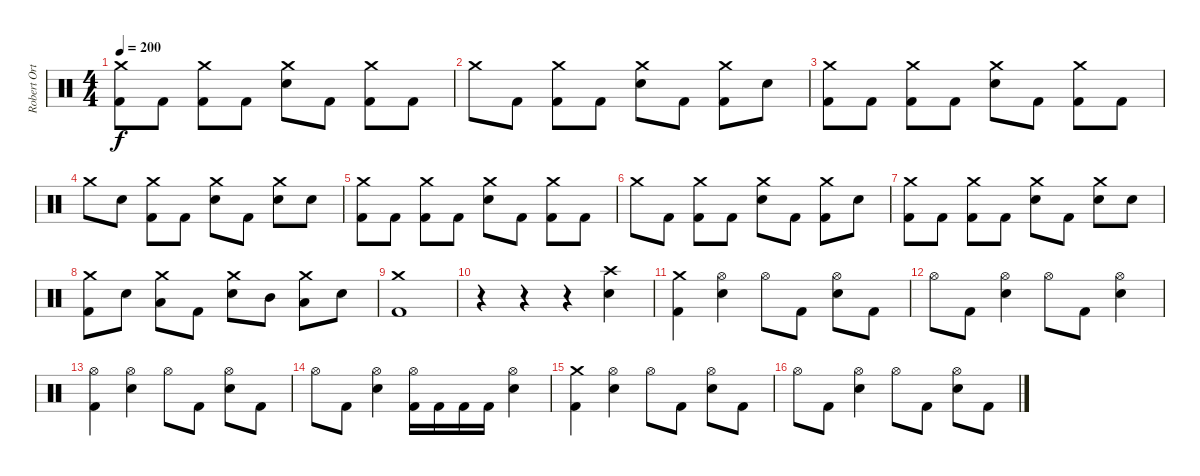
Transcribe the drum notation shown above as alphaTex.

\track ("Robert Ortiz - Drums" "Robert Ort") {instrument percussion}
\staff {score}
\articulation defaults
\ts (4 4)
\tempo 200
\clef neutral
\ks c
("Crash medium (hit)" "Kick (hit) 2").8{dy f} "Kick (hit) 2".8 ("Crash medium (hit)" "Kick (hit) 2").8 "Kick (hit) 2".8 ("Crash medium (hit)" "Electric Snare (hit)").8 "Kick (hit) 2".8 ("Crash medium (hit)" "Kick (hit) 2").8 "Kick (hit) 2".8 |
"Crash medium (hit)".8 "Kick (hit) 2".8 ("Crash medium (hit)" "Kick (hit) 2").8 "Kick (hit) 2".8 ("Crash medium (hit)" "Electric Snare (hit)").8 "Kick (hit) 2".8 ("Crash medium (hit)" "Kick (hit) 2").8 "Electric Snare (hit)".8 |
("Crash medium (hit)" "Kick (hit) 2").8 "Kick (hit) 2".8 ("Crash medium (hit)" "Kick (hit) 2").8 "Kick (hit) 2".8 ("Crash medium (hit)" "Electric Snare (hit)").8 "Kick (hit) 2".8 ("Crash medium (hit)" "Kick (hit) 2").8 "Kick (hit) 2".8 |
"Crash medium (hit)".8 "Electric Snare (hit)".8 ("Crash medium (hit)" "Kick (hit) 2").8 "Kick (hit) 2".8 ("Crash medium (hit)" "Electric Snare (hit)").8 "Kick (hit) 2".8 ("Crash medium (hit)" "Electric Snare (hit)").8 "Electric Snare (hit)".8 |
("Crash medium (hit)" "Kick (hit) 2").8 "Kick (hit) 2".8 ("Crash medium (hit)" "Kick (hit) 2").8 "Kick (hit) 2".8 ("Crash medium (hit)" "Electric Snare (hit)").8 "Kick (hit) 2".8 ("Crash medium (hit)" "Kick (hit) 2").8 "Kick (hit) 2".8 |
"Crash medium (hit)".8 "Kick (hit) 2".8 ("Crash medium (hit)" "Kick (hit) 2").8 "Kick (hit) 2".8 ("Crash medium (hit)" "Electric Snare (hit)").8 "Kick (hit) 2".8 ("Crash medium (hit)" "Kick (hit) 2").8 "Electric Snare (hit)".8 |
("Crash medium (hit)" "Kick (hit) 2").8 "Kick (hit) 2".8 ("Crash medium (hit)" "Kick (hit) 2").8 "Kick (hit) 2".8 ("Crash medium (hit)" "Electric Snare (hit)").8 "Kick (hit) 2".8 ("Crash medium (hit)" "Electric Snare (hit)").8 "Electric Snare (hit)".8 |
("Crash medium (hit)" "Kick (hit) 2").8 "Electric Snare (hit)".8 ("Crash medium (hit)" "Low Tom (hit)").8 "Kick (hit) 2".8 ("Crash medium (hit)" "Electric Snare (hit)").8 "Mid Tom (hit)".8 ("Crash medium (hit)" "Low Tom (hit)").8 "Electric Snare (hit)".8 |
("Crash medium (hit)" "Kick (hit) 2").1 |
r.4 r.4 r.4 ("Crash high (hit)" "Electric Snare (hit)").4 |
("Crash medium (hit)" "Kick (hit) 2").4 ("Hi-Hat (open)" "Electric Snare (hit)").4 "Hi-Hat (open)".8 "Kick (hit) 2".8 ("Hi-Hat (open)" "Electric Snare (hit)").8 "Kick (hit) 2".8 |
"Hi-Hat (open)".8 "Kick (hit) 2".8 ("Hi-Hat (open)" "Electric Snare (hit)").4 "Hi-Hat (open)".8 "Kick (hit) 2".8 ("Hi-Hat (open)" "Electric Snare (hit)").4 |
("Hi-Hat (open)" "Kick (hit) 2").4 ("Hi-Hat (open)" "Electric Snare (hit)").4 "Hi-Hat (open)".8 "Kick (hit) 2".8 ("Hi-Hat (open)" "Electric Snare (hit)").8 "Kick (hit) 2".8 |
"Hi-Hat (open)".8 "Kick (hit) 2".8 ("Hi-Hat (open)" "Electric Snare (hit)").4 ("Hi-Hat (open)" "Kick (hit) 2").16 "Kick (hit) 2".16 "Kick (hit) 2".16 "Kick (hit) 2".16 ("Hi-Hat (open)" "Electric Snare (hit)").4 |
("Crash medium (hit)" "Kick (hit) 2").4 ("Hi-Hat (open)" "Electric Snare (hit)").4 "Hi-Hat (open)".8 "Kick (hit) 2".8 ("Hi-Hat (open)" "Electric Snare (hit)").8 "Kick (hit) 2".8 |
"Hi-Hat (open)".8 "Kick (hit) 2".8 ("Hi-Hat (open)" "Electric Snare (hit)").4 "Hi-Hat (open)".8 "Kick (hit) 2".8 ("Hi-Hat (open)" "Electric Snare (hit)").8 "Kick (hit) 2".8
